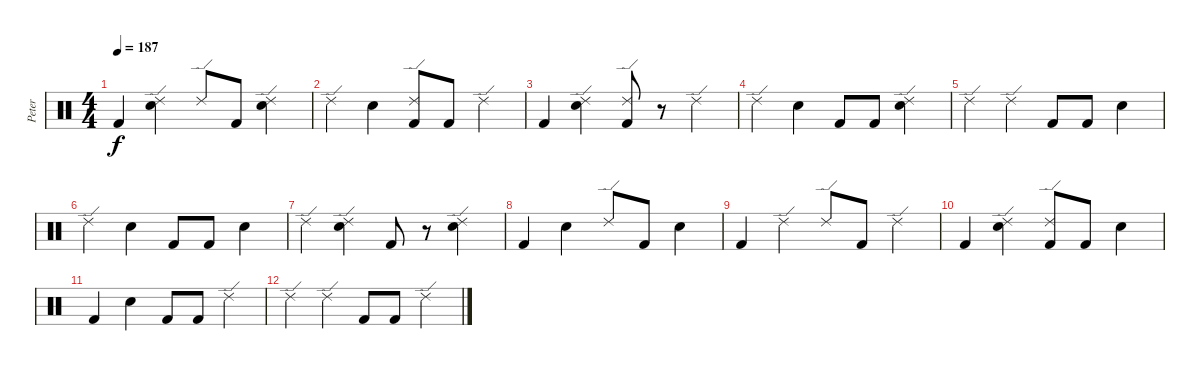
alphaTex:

\track ("Peter" "Peter") {instrument percussion}
\staff {score}
\articulation defaults
\ts (4 4)
\tempo 187
\clef neutral
\ks c "Kick (hit) 2".4{dy f}
("Ride (edge) 2" "Electric Snare (hit)").4 "Ride (edge) 2".8 "Kick (hit) 2".8 ("Ride (edge) 2" "Electric Snare (hit)").4 |
"Ride (edge) 2".4 "Electric Snare (hit)".4 ("Ride (edge) 2" "Kick (hit) 2").8 "Kick (hit) 2".8 "Ride (edge) 2".4 |
"Kick (hit) 2".4 ("Ride (edge) 2" "Electric Snare (hit)").4 ("Ride (edge) 2" "Kick (hit) 2").8 r.8 "Ride (edge) 2".4 |
"Ride (edge) 2".4 "Electric Snare (hit)".4 "Kick (hit) 2".8 "Kick (hit) 2".8 ("Ride (edge) 2" "Electric Snare (hit)").4 |
"Ride (edge) 2".4 "Ride (edge) 2".4 "Kick (hit) 2".8 "Kick (hit) 2".8 "Electric Snare (hit)".4 |
"Ride (edge) 2".4 "Electric Snare (hit)".4 "Kick (hit) 2".8 "Kick (hit) 2".8 "Electric Snare (hit)".4 |
"Ride (edge) 2".4 ("Ride (edge) 2" "Electric Snare (hit)").4 "Kick (hit) 2".8 r.8 ("Ride (edge) 2" "Electric Snare (hit)").4 |
"Kick (hit) 2".4 "Electric Snare (hit)".4 "Ride (edge) 2".8 "Kick (hit) 2".8 "Electric Snare (hit)".4 |
"Kick (hit) 2".4 "Ride (edge) 2".4 "Ride (edge) 2".8 "Kick (hit) 2".8 "Ride (edge) 2".4 |
"Kick (hit) 2".4 ("Ride (edge) 2" "Electric Snare (hit)").4 ("Ride (edge) 2" "Kick (hit) 2").8 "Kick (hit) 2".8 "Electric Snare (hit)".4 |
"Kick (hit) 2".4 "Electric Snare (hit)".4 "Kick (hit) 2".8 "Kick (hit) 2".8 "Ride (edge) 2".4 |
"Ride (edge) 2".4 "Ride (edge) 2".4 "Kick (hit) 2".8 "Kick (hit) 2".8 "Ride (edge) 2".4
